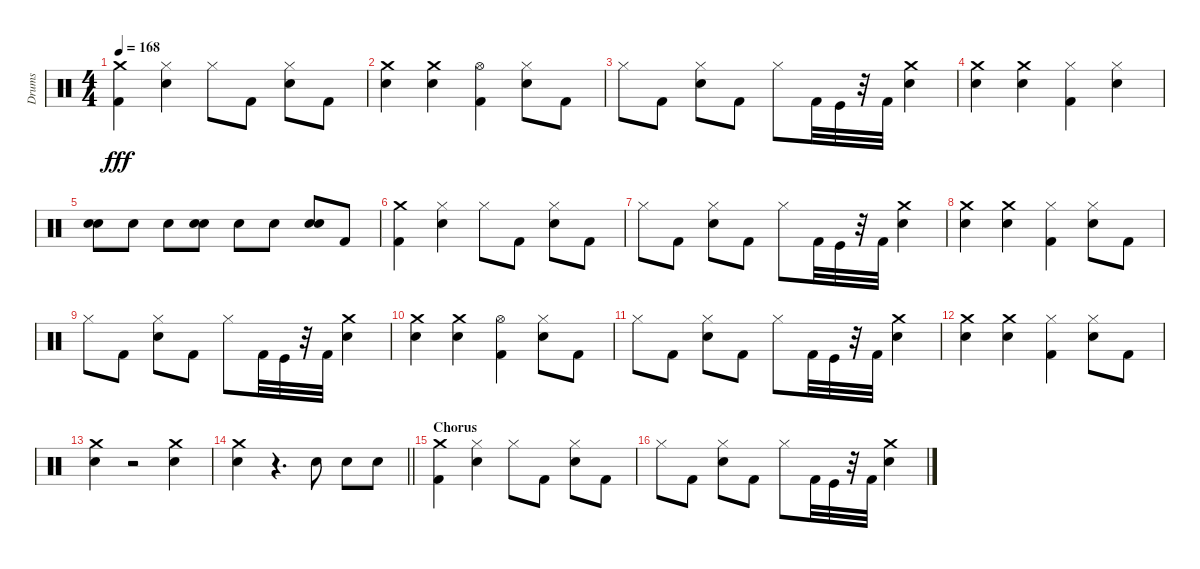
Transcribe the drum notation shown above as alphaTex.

\track ("Drums" "Drums") {instrument percussion}
\staff {score}
\articulation defaults
\ts (4 4)
\tempo 168
\clef neutral
\ks c
("Kick (hit) 2" "Crash medium (hit)").4{dy fff} ("Hi-Hat (closed)" "Snare (hit) 2").4 "Hi-Hat (closed)".8 "Kick (hit) 2".8 ("Snare (hit) 2" "Hi-Hat (closed)").8 "Kick (hit) 2".8 |
("Crash medium (hit)" "Snare (hit) 2").4 ("Crash medium (hit)" "Snare (hit) 2").4 ("Hi-Hat (open)" "Kick (hit) 2").4 ("Snare (hit) 2" "Hi-Hat (closed)").8 "Kick (hit) 2".8 |
"Hi-Hat (closed)".8 "Kick (hit) 2".8 ("Snare (hit) 2" "Hi-Hat (closed)").8 "Kick (hit) 2".8 "Hi-Hat (closed)".8 "Kick (hit) 2".32 "Kick (hit)".32 r.32 "Kick (hit) 2".32 ("Crash medium (hit)" "Snare (hit) 2").4 |
("Snare (hit) 2" "Crash medium (hit)").4 ("Snare (hit) 2" "Crash medium (hit)").4 ("Kick (hit) 2" "Hi-Hat (closed)").4 ("Hi-Hat (closed)" "Snare (hit) 2").4 |
("Snare (hit) 2" "Snare (hit) 2").8 "Snare (hit) 2".8 "Snare (hit) 2".8 ("Snare (hit) 2" "Snare (hit) 2").8 "Snare (hit) 2".8 "Snare (hit) 2".8 ("Snare (hit) 2" "Snare (hit) 2").8 "Kick (hit) 2".8 |
("Kick (hit) 2" "Crash medium (hit)").4 ("Hi-Hat (closed)" "Snare (hit) 2").4 "Hi-Hat (closed)".8 "Kick (hit) 2".8 ("Snare (hit) 2" "Hi-Hat (closed)").8 "Kick (hit) 2".8 |
"Hi-Hat (closed)".8 "Kick (hit) 2".8 ("Snare (hit) 2" "Hi-Hat (closed)").8 "Kick (hit) 2".8 "Hi-Hat (closed)".8 "Kick (hit) 2".32 "Kick (hit)".32 r.32 "Kick (hit) 2".32 ("Crash medium (hit)" "Snare (hit) 2").4 |
("Crash medium (hit)" "Snare (hit) 2").4 ("Crash medium (hit)" "Snare (hit) 2").4 ("Hi-Hat (closed)" "Kick (hit) 2").4 ("Snare (hit) 2" "Hi-Hat (closed)").8 "Kick (hit) 2".8 |
"Hi-Hat (closed)".8 "Kick (hit) 2".8 ("Snare (hit) 2" "Hi-Hat (closed)").8 "Kick (hit) 2".8 "Hi-Hat (closed)".8 "Kick (hit) 2".32 "Kick (hit)".32 r.32 "Kick (hit) 2".32 ("Crash medium (hit)" "Snare (hit) 2").4 |
("Crash medium (hit)" "Snare (hit) 2").4 ("Crash medium (hit)" "Snare (hit) 2").4 ("Hi-Hat (open)" "Kick (hit) 2").4 ("Snare (hit) 2" "Hi-Hat (closed)").8 "Kick (hit) 2".8 |
"Hi-Hat (closed)".8 "Kick (hit) 2".8 ("Snare (hit) 2" "Hi-Hat (closed)").8 "Kick (hit) 2".8 "Hi-Hat (closed)".8 "Kick (hit) 2".32 "Kick (hit)".32 r.32 "Kick (hit) 2".32 ("Crash medium (hit)" "Snare (hit) 2").4 |
("Crash medium (hit)" "Snare (hit) 2").4 ("Crash medium (hit)" "Snare (hit) 2").4 ("Hi-Hat (closed)" "Kick (hit) 2").4 ("Snare (hit) 2" "Hi-Hat (closed)").8 "Kick (hit) 2".8 |
("Snare (hit) 2" "Crash medium (hit)").4 r.2 ("Crash medium (hit)" "Snare (hit) 2").4 |
\barLineRight lightlight
("Snare (hit) 2" "Crash medium (hit)").4 r.4{d} "Snare (hit) 2".8 "Snare (hit) 2".8 "Snare (hit) 2".8 |
\section ("" "Chorus")
("Kick (hit) 2" "Crash medium (hit)").4 ("Hi-Hat (closed)" "Snare (hit) 2").4 "Hi-Hat (closed)".8 "Kick (hit) 2".8 ("Snare (hit) 2" "Hi-Hat (closed)").8 "Kick (hit) 2".8 |
"Hi-Hat (closed)".8 "Kick (hit) 2".8 ("Snare (hit) 2" "Hi-Hat (closed)").8 "Kick (hit) 2".8 "Hi-Hat (closed)".8 "Kick (hit) 2".32 "Kick (hit)".32 r.32 "Kick (hit) 2".32 ("Crash medium (hit)" "Snare (hit) 2").4
